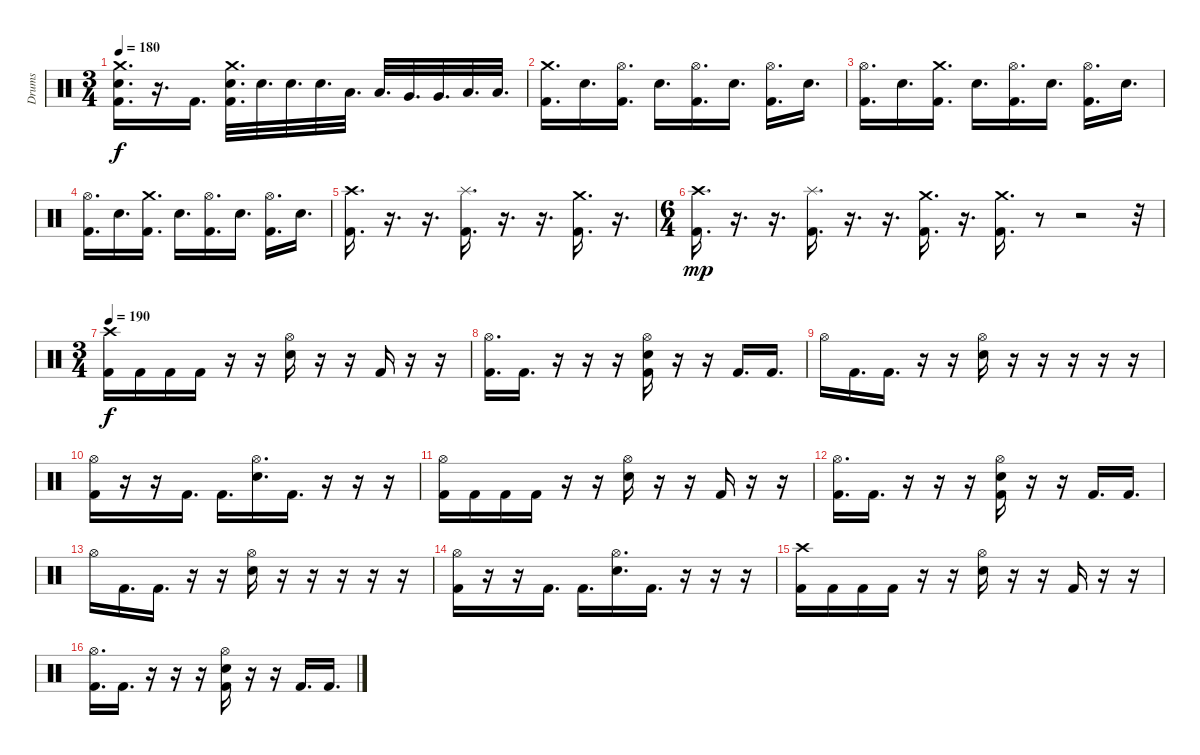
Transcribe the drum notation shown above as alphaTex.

\track ("Drums" "Drums") {instrument percussion}
\staff {score}
\articulation defaults
\ts (3 4)
\tempo 180
\clef neutral
\ks c
("Crash medium (hit)" "Electric Snare (hit)" "Kick (hit) 2").16{d dy f} r.16{d} "Kick (hit) 2".16{d} ("Crash medium (hit)" "Electric Snare (hit)" "Kick (hit) 2").32{d} "Electric Snare (hit)".32{d} "Electric Snare (hit)".32{d} "Electric Snare (hit)".32{d} "Low Tom (hit)".32{d} "Low Tom (hit)".32{d} "Very Low Tom (hit)".32{d} "Very Low Tom (hit)".32{d} "Low Floor Tom (hit)".32{d} "Low Floor Tom (hit)".32{d} |
("Crash medium (hit)" "Kick (hit) 2").16{d} "Electric Snare (hit)".16{d} ("Hi-Hat (open)" "Kick (hit) 2").16{d} "Electric Snare (hit)".16{d} ("Hi-Hat (open)" "Kick (hit) 2").16{d} "Electric Snare (hit)".16{d} ("Hi-Hat (open)" "Kick (hit) 2").16{d} "Electric Snare (hit)".16{d} |
("Hi-Hat (open)" "Kick (hit) 2").16{d} "Electric Snare (hit)".16{d} ("Crash medium (hit)" "Kick (hit) 2").16{d} "Electric Snare (hit)".16{d} ("Hi-Hat (open)" "Kick (hit) 2").16{d} "Electric Snare (hit)".16{d} ("Hi-Hat (open)" "Kick (hit) 2").16{d} "Electric Snare (hit)".16{d} |
("Hi-Hat (open)" "Kick (hit) 2").16{d} "Electric Snare (hit)".16{d} ("Crash medium (hit)" "Kick (hit) 2").16{d} "Electric Snare (hit)".16{d} ("Hi-Hat (open)" "Kick (hit) 2").16{d} "Electric Snare (hit)".16{d} ("Hi-Hat (open)" "Kick (hit) 2").16{d} "Electric Snare (hit)".16{d} |
("Crash high (hit)" "Kick (hit) 2").16{d} r.16{d} r.16{d} ("Splash (hit)" "Kick (hit) 2").16{d} r.16{d} r.16{d} ("Crash medium (hit)" "Kick (hit) 2").16{d} r.16{d} |
\ts (6 4)
("Crash high (hit)" "Kick (hit) 2").16{d dy mp} r.16{d} r.16{d} ("Splash (hit)" "Kick (hit) 2").16{d} r.16{d} r.16{d} ("Crash medium (hit)" "Kick (hit) 2").16{d} r.16{d} ("Crash medium (hit)" "Kick (hit) 2").16{d} r.8 r.2 r.32 |
\ts (3 4)
\tempo 190
("Crash high (hit)" "Kick (hit) 2").16{dy f} "Kick (hit) 2".16 "Kick (hit) 2".16 "Kick (hit) 2".16 r.16 r.16 ("Hi-Hat (open)" "Electric Snare (hit)").16 r.16 r.16 "Kick (hit) 2".16 r.16 r.16 |
("Hi-Hat (open)" "Kick (hit) 2").16{d} "Kick (hit) 2".16{d} r.16 r.16 r.16 ("Hi-Hat (open)" "Electric Snare (hit)" "Kick (hit) 2").16 r.16 r.16 "Kick (hit) 2".16{d} "Kick (hit) 2".16{d} |
"Hi-Hat (open)".16 "Kick (hit) 2".16{d} "Kick (hit) 2".16{d} r.16 r.16 ("Hi-Hat (open)" "Electric Snare (hit)").16 r.16 r.16 r.16 r.16 r.16 |
("Hi-Hat (open)" "Kick (hit) 2").16 r.16 r.16 "Kick (hit) 2".16{d} "Kick (hit) 2".16{d} ("Hi-Hat (open)" "Electric Snare (hit)").16{d} "Kick (hit) 2".16{d} r.16 r.16 r.16 |
("Hi-Hat (open)" "Kick (hit) 2").16 "Kick (hit) 2".16 "Kick (hit) 2".16 "Kick (hit) 2".16 r.16 r.16 ("Hi-Hat (open)" "Electric Snare (hit)").16 r.16 r.16 "Kick (hit) 2".16 r.16 r.16 |
("Hi-Hat (open)" "Kick (hit) 2").16{d} "Kick (hit) 2".16{d} r.16 r.16 r.16 ("Hi-Hat (open)" "Electric Snare (hit)" "Kick (hit) 2").16 r.16 r.16 "Kick (hit) 2".16{d} "Kick (hit) 2".16{d} |
"Hi-Hat (open)".16 "Kick (hit) 2".16{d} "Kick (hit) 2".16{d} r.16 r.16 ("Hi-Hat (open)" "Electric Snare (hit)").16 r.16 r.16 r.16 r.16 r.16 |
("Hi-Hat (open)" "Kick (hit) 2").16 r.16 r.16 "Kick (hit) 2".16{d} "Kick (hit) 2".16{d} ("Hi-Hat (open)" "Electric Snare (hit)").16{d} "Kick (hit) 2".16{d} r.16 r.16 r.16 |
("Crash high (hit)" "Kick (hit) 2").16 "Kick (hit) 2".16 "Kick (hit) 2".16 "Kick (hit) 2".16 r.16 r.16 ("Hi-Hat (open)" "Electric Snare (hit)").16 r.16 r.16 "Kick (hit) 2".16 r.16 r.16 |
("Hi-Hat (open)" "Kick (hit) 2").16{d} "Kick (hit) 2".16{d} r.16 r.16 r.16 ("Hi-Hat (open)" "Electric Snare (hit)" "Kick (hit) 2").16 r.16 r.16 "Kick (hit) 2".16{d} "Kick (hit) 2".16{d}
